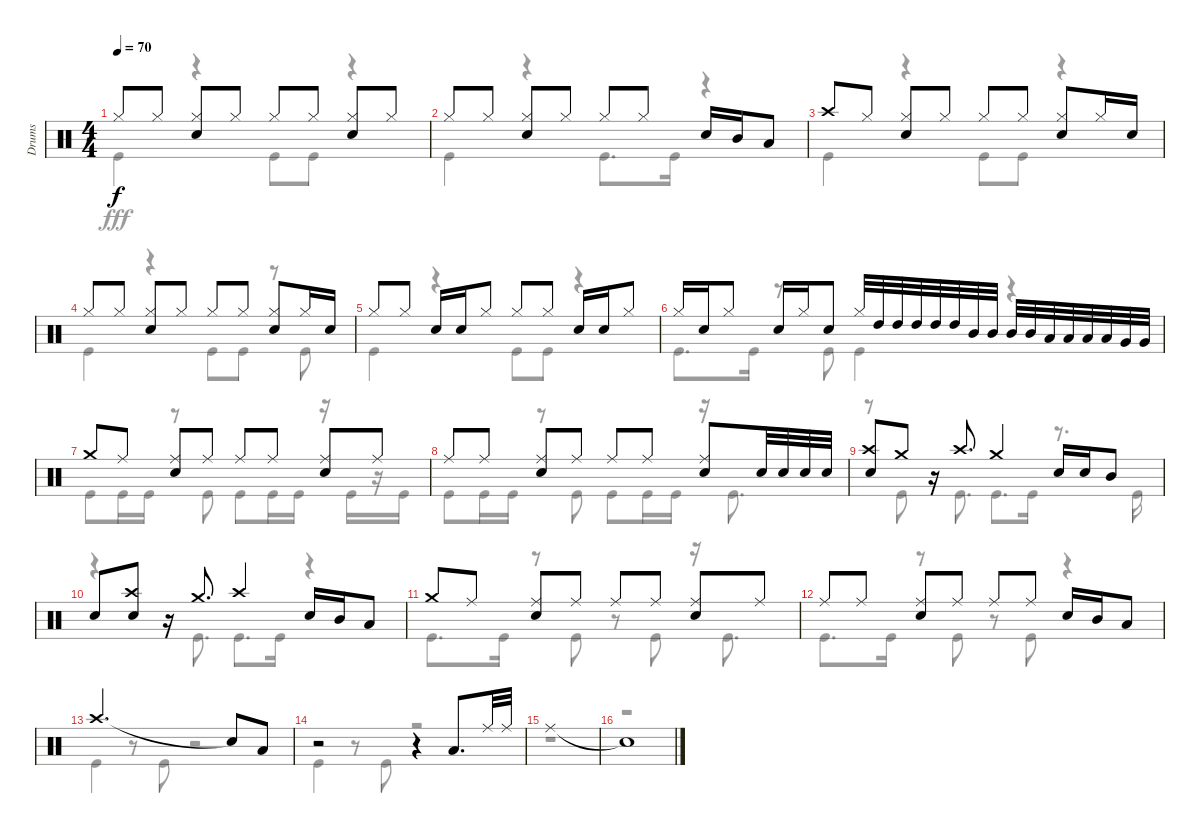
\track ("Drums" "Drums") {instrument percussion}
\staff {score}
\articulation defaults
\voice
\ts (4 4)
\tempo 70
\clef neutral
\ks c "Hi-Hat (closed)".8{dy f} "Hi-Hat (closed)".8
("Hi-Hat (closed)" "Snare (hit) 2").8 "Hi-Hat (closed)".8 "Hi-Hat (closed)".8 "Hi-Hat (closed)".8 ("Hi-Hat (closed)" "Snare (hit) 2").8 "Hi-Hat (closed)".8 |
"Hi-Hat (closed)".8 "Hi-Hat (closed)".8 ("Hi-Hat (closed)" "Snare (hit) 2").8 "Hi-Hat (closed)".8 "Hi-Hat (closed)".8 "Hi-Hat (closed)".8 "Snare (hit) 2".16 "Mid Tom (hit)".16 "Low Tom (hit)".8 |
"Crash high (hit)".8 "Hi-Hat (closed)".8 ("Hi-Hat (closed)" "Snare (hit) 2").8 "Hi-Hat (closed)".8 "Hi-Hat (closed)".8 "Hi-Hat (closed)".8 ("Hi-Hat (closed)" "Snare (hit) 2").8 "Hi-Hat (closed)".16 "Snare (hit) 2".16 |
"Hi-Hat (closed)".8 "Hi-Hat (closed)".8 ("Hi-Hat (closed)" "Snare (hit) 2").8 "Hi-Hat (closed)".8 "Hi-Hat (closed)".8 "Hi-Hat (closed)".8 ("Hi-Hat (closed)" "Snare (hit) 2").8 "Hi-Hat (closed)".16 "Snare (hit) 2".16 |
"Hi-Hat (closed)".8 "Hi-Hat (closed)".8 "Snare (hit) 2".16 "Snare (hit) 2".16 "Hi-Hat (closed)".8 "Hi-Hat (closed)".8 "Hi-Hat (closed)".8 "Snare (hit) 2".16 "Snare (hit) 2".16 "Hi-Hat (closed)".8 |
"Hi-Hat (closed)".16 "Snare (hit) 2".16 "Hi-Hat (closed)".8 "Snare (hit) 2".16 "Hi-Hat (closed)".16 "Snare (hit) 2".8 "Hi-Hat (closed)".32 "High Tom (hit)".32 "High Tom (hit)".32 "High Tom (hit)".32 "High Tom (hit)".32 "High Tom (hit)".32 "Mid Tom (hit)".32 "Mid Tom (hit)".32 "Mid Tom (hit)".32 "Mid Tom (hit)".32 "Low Tom (hit)".32 "Low Tom (hit)".32 "Low Tom (hit)".32 "Low Tom (hit)".32 "Very Low Tom (hit)".32 "Very Low Tom (hit)".32 |
"Crash medium (hit)".8 "Ride (middle)".8 ("Ride (middle)" "Snare (hit) 2").8 "Ride (middle)".8 "Ride (middle)".8 "Ride (middle)".8 ("Ride (middle)" "Snare (hit) 2").8 "Ride (middle)".8 |
"Ride (middle)".8 "Ride (middle)".8 ("Ride (middle)" "Snare (hit) 2").8 "Ride (middle)".8 "Ride (middle)".8 "Ride (middle)".8 ("Ride (middle)" "Snare (hit) 2").8 "Snare (hit) 2".32 "Snare (hit) 2".32 "Snare (hit) 2".32 "Snare (hit) 2".32 |
("Crash high (hit)" "Snare (hit) 2").8 "Crash medium (hit)".8 r.16 "Crash high (hit)".8{d} "Crash medium (hit)".4 "Snare (hit) 2".16 "Snare (hit) 2".16 "Mid Tom (hit)".8 |
"Snare (hit) 2".8 ("Crash high (hit)" "Snare (hit) 2").8 r.16 "Crash medium (hit)".8{d} "Crash high (hit)".4 "Snare (hit) 2".16 "Mid Tom (hit)".16 "Low Tom (hit)".8 |
"Crash medium (hit)".8 "Ride (middle)".8 ("Ride (middle)" "Snare (hit) 2").8 "Ride (middle)".8 "Ride (middle)".8 "Ride (middle)".8 ("Ride (middle)" "Snare (hit) 2").8 "Ride (middle)".8 |
"Ride (middle)".8 "Ride (middle)".8 ("Ride (middle)" "Snare (hit) 2").8 "Ride (middle)".8 "Ride (middle)".8 "Ride (middle)".8 "Snare (hit) 2".16 "Mid Tom (hit)".16 "Low Tom (hit)".8 |
"Crash high (hit)".2{d} "Snare (hit)"{t}.8 "Low Tom (hit)".8 |
r.2 r.4 "Low Tom (hit)".8{d} "Ride (middle)".32 "Ride (middle)".32 |
"Ride (middle)".1 |
"Snare (hit)"{t}.1
\voice
\clef neutral
\ottava regular
\simile none
\ks c "Kick (hit)".4{dy fff}
r.4 "Kick (hit)".8 "Kick (hit)".8 r.4 |
"Kick (hit)".4 r.4 "Kick (hit)".8{d} "Kick (hit)".16 r.4 |
"Kick (hit)".4 r.4 "Kick (hit)".8 "Kick (hit)".8 r.4 |
"Kick (hit)".4 r.4 "Kick (hit)".8 "Kick (hit)".8 r.8 "Kick (hit)".8 |
"Kick (hit)".4 r.4 "Kick (hit)".8 "Kick (hit)".8 r.4 |
"Kick (hit)".8{d} "Kick (hit)".16 r.8 "Kick (hit)".8 "Kick (hit)".4 r.4 |
"Kick (hit)".8 "Kick (hit)".16 "Kick (hit)".16 r.8 "Kick (hit)".8 "Kick (hit)".8 "Kick (hit)".16 "Kick (hit)".16 r.16 "Kick (hit)".16 r.16 "Kick (hit)".16 |
"Kick (hit)".8 "Kick (hit)".16 "Kick (hit)".16 r.8 "Kick (hit)".8 "Kick (hit)".8 "Kick (hit)".16 "Kick (hit)".16 r.16 "Kick (hit)".8{d} |
r.8 "Kick (hit)".8 r.16 "Kick (hit)".8{d} "Kick (hit)".8{d} "Kick (hit)".16 r.8{d} "Kick (hit)".16 |
r.4 r.16 "Kick (hit)".8{d} "Kick (hit)".8{d} "Kick (hit)".16 r.4 |
"Kick (hit)".8{d} "Kick (hit)".16 r.8 "Kick (hit)".8 r.8 "Kick (hit)".8 r.16 "Kick (hit)".8{d} |
"Kick (hit)".8{d} "Kick (hit)".16 r.8 "Kick (hit)".8 r.8 "Kick (hit)".8 r.4 |
"Kick (hit)".4 r.8 "Kick (hit)".8 r.2 |
"Kick (hit)".4 r.8 "Kick (hit)".8 r.2 |
r.1 |
r.1
